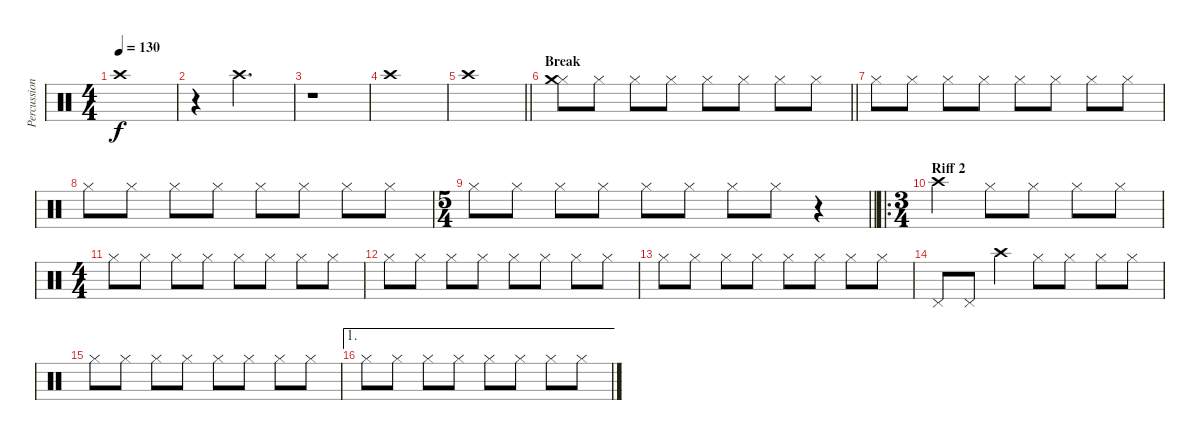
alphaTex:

\track ("Percussion 2" "Percussion") {instrument percussion}
\staff {score}
\articulation defaults
\ts (4 4)
\tempo 130
\clef neutral
\ks c "Crash high (hit)".1{dy f}
|
r.4 "Crash high (hit)".2{d} |
r.1 |
"Crash high (hit)".1 |
\barLineRight lightlight "Crash high (hit)".1
|
\section ("" "Break")
\barLineRight lightlight
("Hi-Hat (closed)" "Crash medium (hit)").8 "Hi-Hat (closed)".8 "Hi-Hat (closed)".8 "Hi-Hat (closed)".8 "Hi-Hat (closed)".8 "Hi-Hat (closed)".8 "Hi-Hat (closed)".8 "Hi-Hat (closed)".8 |
"Hi-Hat (closed)".8 "Hi-Hat (closed)".8 "Hi-Hat (closed)".8 "Hi-Hat (closed)".8 "Hi-Hat (closed)".8 "Hi-Hat (closed)".8 "Hi-Hat (closed)".8 "Hi-Hat (closed)".8 |
"Hi-Hat (closed)".8 "Hi-Hat (closed)".8 "Hi-Hat (closed)".8 "Hi-Hat (closed)".8 "Hi-Hat (closed)".8 "Hi-Hat (closed)".8 "Hi-Hat (closed)".8 "Hi-Hat (closed)".8 |
\ts (5 4)
\barLineRight lightlight "Hi-Hat (closed)".8 "Hi-Hat (closed)".8 "Hi-Hat (closed)".8 "Hi-Hat (closed)".8 "Hi-Hat (closed)".8 "Hi-Hat (closed)".8 "Hi-Hat (closed)".8 "Hi-Hat (closed)".8
r.4 |
\ro
\ts (3 4)
\section ("" "Riff 2")
"Crash high (hit)".4 "Hi-Hat (closed)".8 "Hi-Hat (closed)".8 "Hi-Hat (closed)".8 "Hi-Hat (closed)".8 |
\ts (4 4)
"Hi-Hat (closed)".8 "Hi-Hat (closed)".8 "Hi-Hat (closed)".8 "Hi-Hat (closed)".8 "Hi-Hat (closed)".8 "Hi-Hat (closed)".8 "Hi-Hat (closed)".8 "Hi-Hat (closed)".8 |
"Hi-Hat (closed)".8 "Hi-Hat (closed)".8 "Hi-Hat (closed)".8 "Hi-Hat (closed)".8 "Hi-Hat (closed)".8 "Hi-Hat (closed)".8 "Hi-Hat (closed)".8 "Hi-Hat (closed)".8 |
"Hi-Hat (closed)".8 "Hi-Hat (closed)".8 "Hi-Hat (closed)".8 "Hi-Hat (closed)".8 "Hi-Hat (closed)".8 "Hi-Hat (closed)".8 "Hi-Hat (closed)".8 "Hi-Hat (closed)".8 |
"Pedal Hi-Hat (hit)".8 "Pedal Hi-Hat (hit)".8 "Crash high (hit)".4 "Hi-Hat (closed)".8 "Hi-Hat (closed)".8 "Hi-Hat (closed)".8 "Hi-Hat (closed)".8 |
"Hi-Hat (closed)".8 "Hi-Hat (closed)".8 "Hi-Hat (closed)".8 "Hi-Hat (closed)".8 "Hi-Hat (closed)".8 "Hi-Hat (closed)".8 "Hi-Hat (closed)".8 "Hi-Hat (closed)".8 |
\ae 1 "Hi-Hat (closed)".8 "Hi-Hat (closed)".8 "Hi-Hat (closed)".8 "Hi-Hat (closed)".8 "Hi-Hat (closed)".8 "Hi-Hat (closed)".8 "Hi-Hat (closed)".8 "Hi-Hat (closed)".8
